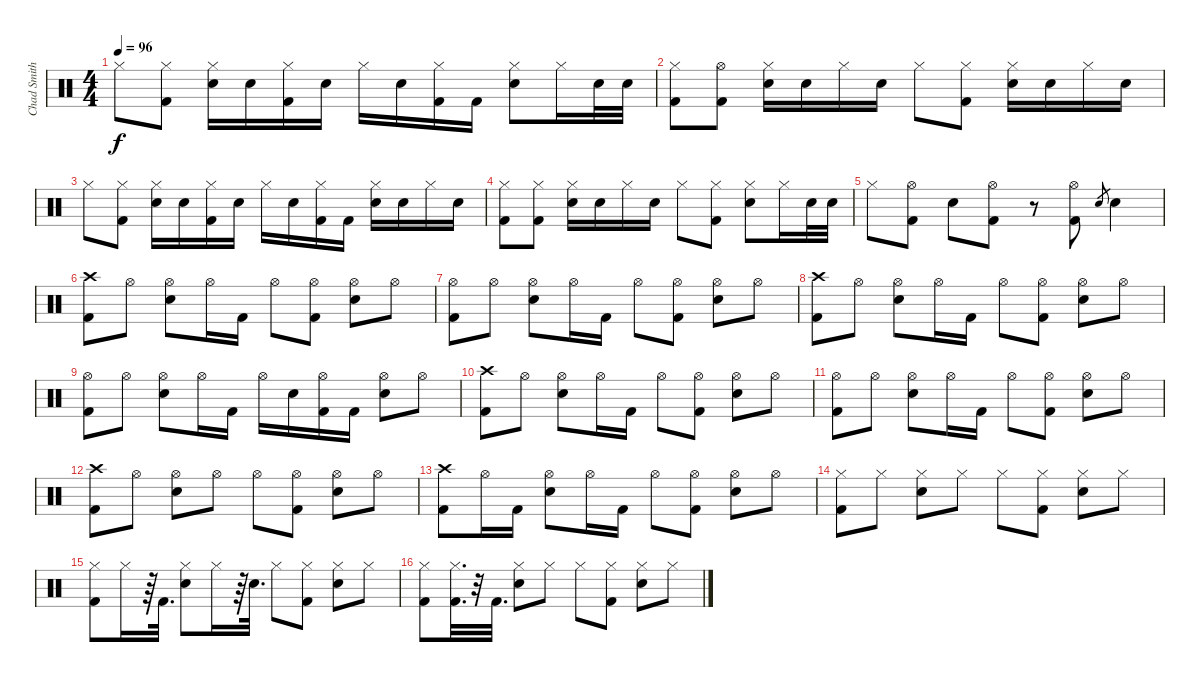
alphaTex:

\track ("Chad Smith" "Chad Smith") {instrument percussion}
\staff {score}
\articulation defaults
\ts (4 4)
\tempo 96
\clef neutral
\ks c "Hi-Hat (closed)".8{dy f}
("Hi-Hat (closed)" "Kick (hit) 2").8 ("Hi-Hat (closed)" "Electric Snare (hit)").16 "Electric Snare (hit)".16 ("Hi-Hat (closed)" "Kick (hit) 2").16 "Electric Snare (hit)".16 "Hi-Hat (closed)".16 "Electric Snare (hit)".16 ("Hi-Hat (closed)" "Kick (hit) 2").16 "Kick (hit) 2".16 ("Hi-Hat (closed)" "Electric Snare (hit)").8 "Hi-Hat (closed)".16 "Electric Snare (hit)".32 "Electric Snare (hit)".32 |
("Hi-Hat (closed)" "Kick (hit) 2").8 ("Hi-Hat (open)" "Kick (hit) 2").8 ("Hi-Hat (closed)" "Electric Snare (hit)").16 "Electric Snare (hit)".16 "Hi-Hat (closed)".16 "Electric Snare (hit)".16 "Hi-Hat (closed)".8 ("Hi-Hat (closed)" "Kick (hit) 2").8 ("Hi-Hat (closed)" "Electric Snare (hit)").16 "Electric Snare (hit)".16 "Hi-Hat (closed)".16 "Electric Snare (hit)".16 |
"Hi-Hat (closed)".8 ("Hi-Hat (closed)" "Kick (hit) 2").8 ("Hi-Hat (closed)" "Electric Snare (hit)").16 "Electric Snare (hit)".16 ("Hi-Hat (closed)" "Kick (hit) 2").16 "Electric Snare (hit)".16 "Hi-Hat (closed)".16 "Electric Snare (hit)".16 ("Hi-Hat (closed)" "Kick (hit) 2").16 "Kick (hit) 2".16 ("Hi-Hat (closed)" "Electric Snare (hit)").16 "Electric Snare (hit)".16 "Hi-Hat (closed)".16 "Electric Snare (hit)".16 |
("Hi-Hat (closed)" "Kick (hit) 2").8 ("Hi-Hat (closed)" "Kick (hit) 2").8 ("Hi-Hat (closed)" "Electric Snare (hit)").16 "Electric Snare (hit)".16 "Hi-Hat (closed)".16 "Electric Snare (hit)".16 "Hi-Hat (closed)".8 ("Hi-Hat (closed)" "Kick (hit) 2").8 ("Hi-Hat (closed)" "Electric Snare (hit)").8 "Hi-Hat (closed)".16 "Electric Snare (hit)".32 "Electric Snare (hit)".32 |
"Hi-Hat (closed)".8 ("Hi-Hat (open)" "Kick (hit) 2").8 "Electric Snare (hit)".8 ("Hi-Hat (open)" "Kick (hit) 2").8 r.8 ("Hi-Hat (open)" "Kick (hit) 2").8 "Electric Snare (hit)".8{gr} "Electric Snare (hit)".4 |
("Crash high (hit)" "Kick (hit) 2").8 "Hi-Hat (open)".8 ("Hi-Hat (open)" "Electric Snare (hit)").8 "Hi-Hat (open)".16 "Kick (hit) 2".16 "Hi-Hat (open)".8 ("Hi-Hat (open)" "Kick (hit) 2").8 ("Hi-Hat (open)" "Electric Snare (hit)").8 "Hi-Hat (open)".8 |
("Hi-Hat (open)" "Kick (hit) 2").8 "Hi-Hat (open)".8 ("Hi-Hat (open)" "Electric Snare (hit)").8 "Hi-Hat (open)".16 "Kick (hit) 2".16 "Hi-Hat (open)".8 ("Hi-Hat (open)" "Kick (hit) 2").8 ("Hi-Hat (open)" "Electric Snare (hit)").8 "Hi-Hat (open)".8 |
("Crash high (hit)" "Kick (hit) 2").8 "Hi-Hat (open)".8 ("Hi-Hat (open)" "Electric Snare (hit)").8 "Hi-Hat (open)".16 "Kick (hit) 2".16 "Hi-Hat (open)".8 ("Hi-Hat (open)" "Kick (hit) 2").8 ("Hi-Hat (open)" "Electric Snare (hit)").8 "Hi-Hat (open)".8 |
("Hi-Hat (open)" "Kick (hit) 2").8 "Hi-Hat (open)".8 ("Hi-Hat (open)" "Electric Snare (hit)").8 "Hi-Hat (open)".16 "Kick (hit) 2".16 "Hi-Hat (open)".16 "Electric Snare (hit)".16 ("Hi-Hat (open)" "Kick (hit) 2").16 "Kick (hit) 2".16 ("Hi-Hat (open)" "Electric Snare (hit)").8 "Hi-Hat (open)".8 |
("Crash high (hit)" "Kick (hit) 2").8 "Hi-Hat (open)".8 ("Hi-Hat (open)" "Electric Snare (hit)").8 "Hi-Hat (open)".16 "Kick (hit) 2".16 "Hi-Hat (open)".8 ("Hi-Hat (open)" "Kick (hit) 2").8 ("Hi-Hat (open)" "Electric Snare (hit)").8 "Hi-Hat (open)".8 |
("Hi-Hat (open)" "Kick (hit) 2").8 "Hi-Hat (open)".8 ("Hi-Hat (open)" "Electric Snare (hit)").8 "Hi-Hat (open)".16 "Kick (hit) 2".16 "Hi-Hat (open)".8 ("Hi-Hat (open)" "Kick (hit) 2").8 ("Hi-Hat (open)" "Electric Snare (hit)").8 "Hi-Hat (open)".8 |
("Crash high (hit)" "Kick (hit) 2").8 "Hi-Hat (open)".8 ("Hi-Hat (open)" "Electric Snare (hit)").8 "Hi-Hat (open)".8 "Hi-Hat (open)".8 ("Hi-Hat (open)" "Kick (hit) 2").8 ("Hi-Hat (open)" "Electric Snare (hit)").8 "Hi-Hat (open)".8 |
("Crash high (hit)" "Kick (hit) 2").8 "Hi-Hat (open)".16 "Kick (hit) 2".16 ("Hi-Hat (open)" "Electric Snare (hit)").8 "Hi-Hat (open)".16 "Kick (hit) 2".16 "Hi-Hat (open)".8 ("Hi-Hat (open)" "Kick (hit) 2").8 ("Hi-Hat (open)" "Electric Snare (hit)").8 "Hi-Hat (open)".8 |
("Hi-Hat (closed)" "Kick (hit) 2").8 "Hi-Hat (closed)".8 ("Hi-Hat (closed)" "Electric Snare (hit)").8 "Hi-Hat (closed)".8 "Hi-Hat (closed)".8 ("Hi-Hat (closed)" "Kick (hit) 2").8 ("Hi-Hat (closed)" "Electric Snare (hit)").8 "Hi-Hat (closed)".8 |
("Hi-Hat (closed)" "Kick (hit) 2").8 "Hi-Hat (closed)".16 r.64 "Kick (hit) 2".32{d} ("Hi-Hat (closed)" "Electric Snare (hit)").8 "Hi-Hat (closed)".16 r.64 "Electric Snare (hit)".32{d} "Hi-Hat (closed)".8 ("Hi-Hat (closed)" "Kick (hit) 2").8 ("Hi-Hat (closed)" "Electric Snare (hit)").8 "Hi-Hat (closed)".8 |
("Hi-Hat (closed)" "Kick (hit) 2").8 ("Hi-Hat (closed)" "Kick (hit) 2").32{d} r.32 "Kick (hit) 2".32{d} ("Hi-Hat (closed)" "Electric Snare (hit)").8 "Hi-Hat (closed)".8 "Hi-Hat (closed)".8 ("Hi-Hat (closed)" "Kick (hit) 2").8 ("Hi-Hat (closed)" "Electric Snare (hit)").8 "Hi-Hat (closed)".8
